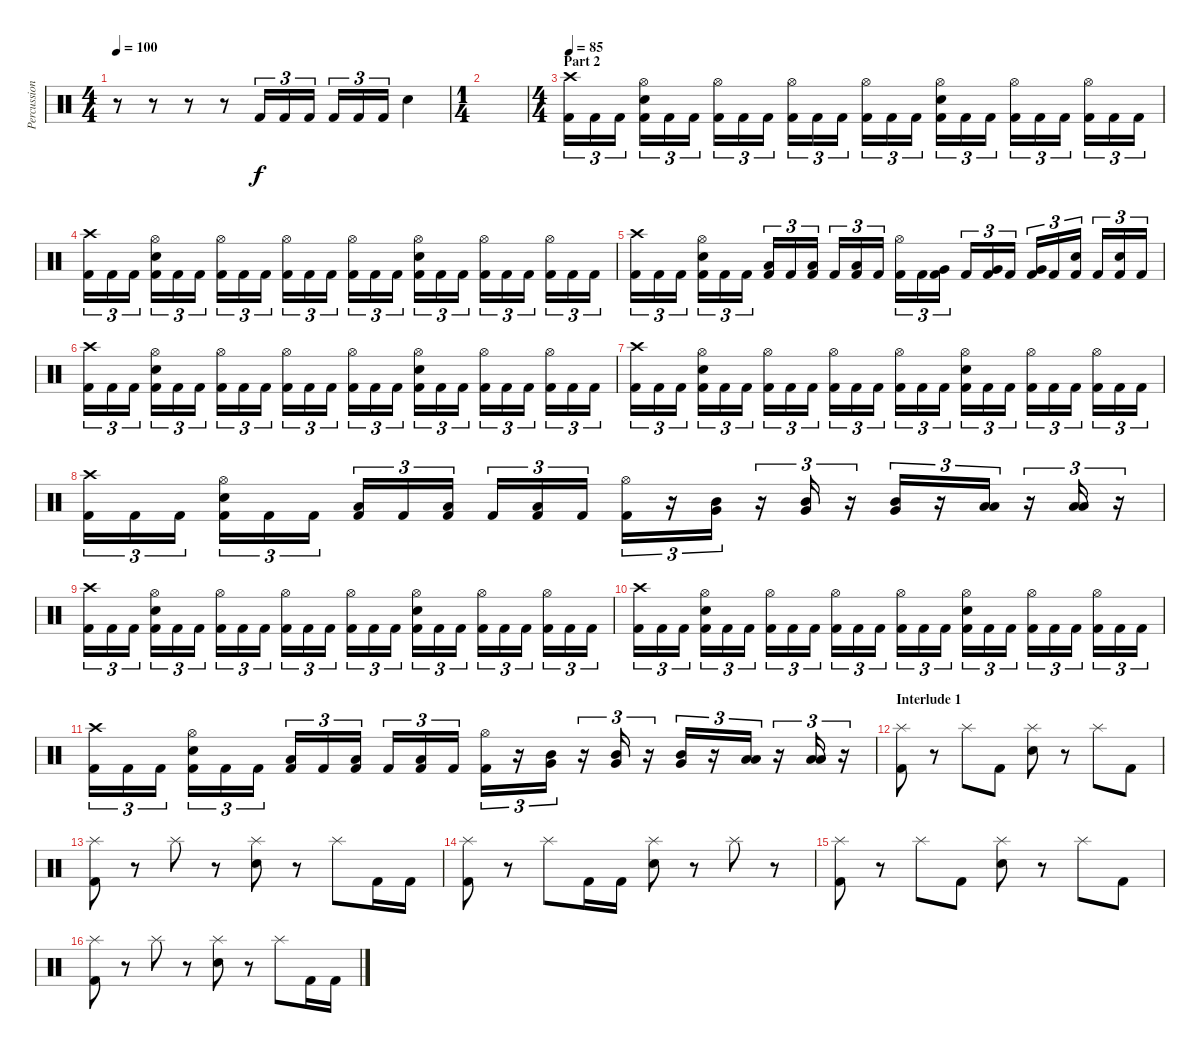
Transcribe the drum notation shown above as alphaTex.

\track ("Percussion" "Percussion") {instrument percussion}
\staff {score}
\articulation defaults
\ts (4 4)
\tempo 100
\clef neutral
\ks c
r.8{dy f} r.8 r.8 r.8 "Kick (hit) 2".16{tu (3 2)} "Kick (hit) 2".16{tu (3 2)} "Kick (hit) 2".16{tu (3 2)} "Kick (hit) 2".16{tu (3 2)} "Kick (hit) 2".16{tu (3 2)} "Kick (hit) 2".16{tu (3 2)} "Electric Snare (hit)".4 |
\ts (1 4)
|
\ts (4 4)
\section ("" "Part 2")
\tempo 85
("Crash high (hit)" "Kick (hit) 2").16{tu (3 2)} "Kick (hit) 2".16{tu (3 2)} "Kick (hit) 2".16{tu (3 2)} ("Hi-Hat (open)" "Electric Snare (hit)" "Kick (hit) 2").16{tu (3 2)} "Kick (hit) 2".16{tu (3 2)} "Kick (hit) 2".16{tu (3 2)} ("Hi-Hat (open)" "Kick (hit) 2").16{tu (3 2)} "Kick (hit) 2".16{tu (3 2)} "Kick (hit) 2".16{tu (3 2)} ("Hi-Hat (open)" "Kick (hit) 2").16{tu (3 2)} "Kick (hit) 2".16{tu (3 2)} "Kick (hit) 2".16{tu (3 2)} ("Hi-Hat (open)" "Kick (hit) 2").16{tu (3 2)} "Kick (hit) 2".16{tu (3 2)} "Kick (hit) 2".16{tu (3 2)} ("Hi-Hat (open)" "Electric Snare (hit)" "Kick (hit) 2").16{tu (3 2)} "Kick (hit) 2".16{tu (3 2)} "Kick (hit) 2".16{tu (3 2)} ("Hi-Hat (open)" "Kick (hit) 2").16{tu (3 2)} "Kick (hit) 2".16{tu (3 2)} "Kick (hit) 2".16{tu (3 2)} ("Hi-Hat (open)" "Kick (hit) 2").16{tu (3 2)} "Kick (hit) 2".16{tu (3 2)} "Kick (hit) 2".16{tu (3 2)} |
("Crash high (hit)" "Kick (hit) 2").16{tu (3 2)} "Kick (hit) 2".16{tu (3 2)} "Kick (hit) 2".16{tu (3 2)} ("Hi-Hat (open)" "Electric Snare (hit)" "Kick (hit) 2").16{tu (3 2)} "Kick (hit) 2".16{tu (3 2)} "Kick (hit) 2".16{tu (3 2)} ("Hi-Hat (open)" "Kick (hit) 2").16{tu (3 2)} "Kick (hit) 2".16{tu (3 2)} "Kick (hit) 2".16{tu (3 2)} ("Hi-Hat (open)" "Kick (hit) 2").16{tu (3 2)} "Kick (hit) 2".16{tu (3 2)} "Kick (hit) 2".16{tu (3 2)} ("Hi-Hat (open)" "Kick (hit) 2").16{tu (3 2)} "Kick (hit) 2".16{tu (3 2)} "Kick (hit) 2".16{tu (3 2)} ("Hi-Hat (open)" "Electric Snare (hit)" "Kick (hit) 2").16{tu (3 2)} "Kick (hit) 2".16{tu (3 2)} "Kick (hit) 2".16{tu (3 2)} ("Hi-Hat (open)" "Kick (hit) 2").16{tu (3 2)} "Kick (hit) 2".16{tu (3 2)} "Kick (hit) 2".16{tu (3 2)} ("Hi-Hat (open)" "Kick (hit) 2").16{tu (3 2)} "Kick (hit) 2".16{tu (3 2)} "Kick (hit) 2".16{tu (3 2)} |
("Crash high (hit)" "Kick (hit) 2").16{tu (3 2)} "Kick (hit) 2".16{tu (3 2)} "Kick (hit) 2".16{tu (3 2)} ("Hi-Hat (open)" "Electric Snare (hit)" "Kick (hit) 2").16{tu (3 2)} "Kick (hit) 2".16{tu (3 2)} "Kick (hit) 2".16{tu (3 2)} ("Low Tom (hit)" "Kick (hit) 2").16{tu (3 2)} "Kick (hit) 2".16{tu (3 2)} ("Low Tom (hit)" "Kick (hit) 2").16{tu (3 2)} "Kick (hit) 2".16{tu (3 2)} ("Low Tom (hit)" "Kick (hit) 2").16{tu (3 2)} "Kick (hit) 2".16{tu (3 2)} ("Hi-Hat (open)" "Kick (hit) 2").16{tu (3 2)} "Kick (hit) 2".16{tu (3 2)} ("Very Low Tom (hit)" "Kick (hit) 2").16{tu (3 2)} "Kick (hit) 2".16{tu (3 2)} ("Very Low Tom (hit)" "Kick (hit) 2").16{tu (3 2)} "Kick (hit) 2".16{tu (3 2)} ("Very Low Tom (hit)" "Kick (hit) 2").16{tu (3 2)} "Kick (hit) 2".16{tu (3 2)} ("Electric Snare (hit)" "Kick (hit) 2").16{tu (3 2)} "Kick (hit) 2".16{tu (3 2)} ("Electric Snare (hit)" "Kick (hit) 2").16{tu (3 2)} "Kick (hit) 2".16{tu (3 2)} |
("Crash high (hit)" "Kick (hit) 2").16{tu (3 2)} "Kick (hit) 2".16{tu (3 2)} "Kick (hit) 2".16{tu (3 2)} ("Hi-Hat (open)" "Electric Snare (hit)" "Kick (hit) 2").16{tu (3 2)} "Kick (hit) 2".16{tu (3 2)} "Kick (hit) 2".16{tu (3 2)} ("Hi-Hat (open)" "Kick (hit) 2").16{tu (3 2)} "Kick (hit) 2".16{tu (3 2)} "Kick (hit) 2".16{tu (3 2)} ("Hi-Hat (open)" "Kick (hit) 2").16{tu (3 2)} "Kick (hit) 2".16{tu (3 2)} "Kick (hit) 2".16{tu (3 2)} ("Hi-Hat (open)" "Kick (hit) 2").16{tu (3 2)} "Kick (hit) 2".16{tu (3 2)} "Kick (hit) 2".16{tu (3 2)} ("Hi-Hat (open)" "Electric Snare (hit)" "Kick (hit) 2").16{tu (3 2)} "Kick (hit) 2".16{tu (3 2)} "Kick (hit) 2".16{tu (3 2)} ("Hi-Hat (open)" "Kick (hit) 2").16{tu (3 2)} "Kick (hit) 2".16{tu (3 2)} "Kick (hit) 2".16{tu (3 2)} ("Hi-Hat (open)" "Kick (hit) 2").16{tu (3 2)} "Kick (hit) 2".16{tu (3 2)} "Kick (hit) 2".16{tu (3 2)} |
("Crash high (hit)" "Kick (hit) 2").16{tu (3 2)} "Kick (hit) 2".16{tu (3 2)} "Kick (hit) 2".16{tu (3 2)} ("Hi-Hat (open)" "Electric Snare (hit)" "Kick (hit) 2").16{tu (3 2)} "Kick (hit) 2".16{tu (3 2)} "Kick (hit) 2".16{tu (3 2)} ("Hi-Hat (open)" "Kick (hit) 2").16{tu (3 2)} "Kick (hit) 2".16{tu (3 2)} "Kick (hit) 2".16{tu (3 2)} ("Hi-Hat (open)" "Kick (hit) 2").16{tu (3 2)} "Kick (hit) 2".16{tu (3 2)} "Kick (hit) 2".16{tu (3 2)} ("Hi-Hat (open)" "Kick (hit) 2").16{tu (3 2)} "Kick (hit) 2".16{tu (3 2)} "Kick (hit) 2".16{tu (3 2)} ("Hi-Hat (open)" "Electric Snare (hit)" "Kick (hit) 2").16{tu (3 2)} "Kick (hit) 2".16{tu (3 2)} "Kick (hit) 2".16{tu (3 2)} ("Hi-Hat (open)" "Kick (hit) 2").16{tu (3 2)} "Kick (hit) 2".16{tu (3 2)} "Kick (hit) 2".16{tu (3 2)} ("Hi-Hat (open)" "Kick (hit) 2").16{tu (3 2)} "Kick (hit) 2".16{tu (3 2)} "Kick (hit) 2".16{tu (3 2)} |
("Crash high (hit)" "Kick (hit) 2").16{tu (3 2)} "Kick (hit) 2".16{tu (3 2)} "Kick (hit) 2".16{tu (3 2)} ("Hi-Hat (open)" "Electric Snare (hit)" "Kick (hit) 2").16{tu (3 2)} "Kick (hit) 2".16{tu (3 2)} "Kick (hit) 2".16{tu (3 2)} ("Low Tom (hit)" "Kick (hit) 2").16{tu (3 2)} "Kick (hit) 2".16{tu (3 2)} ("Low Tom (hit)" "Kick (hit) 2").16{tu (3 2)} "Kick (hit) 2".16{tu (3 2)} ("Low Tom (hit)" "Kick (hit) 2").16{tu (3 2)} "Kick (hit) 2".16{tu (3 2)} ("Hi-Hat (open)" "Kick (hit) 2").16{tu (3 2)} r.16{tu (3 2)} ("Very Low Tom (hit)" "Mid Tom (hit)").16{tu (3 2)} r.16{tu (3 2)} ("Very Low Tom (hit)" "Mid Tom (hit)").16{tu (3 2)} r.16{tu (3 2)} ("Very Low Tom (hit)" "Mid Tom (hit)").16{tu (3 2)} r.16{tu (3 2)} ("Low Floor Tom (hit)" "Low Tom (hit)").16{tu (3 2)} r.16{tu (3 2)} ("Low Floor Tom (hit)" "Low Tom (hit)").16{tu (3 2)} r.16{tu (3 2)} |
("Crash high (hit)" "Kick (hit) 2").16{tu (3 2)} "Kick (hit) 2".16{tu (3 2)} "Kick (hit) 2".16{tu (3 2)} ("Hi-Hat (open)" "Electric Snare (hit)" "Kick (hit) 2").16{tu (3 2)} "Kick (hit) 2".16{tu (3 2)} "Kick (hit) 2".16{tu (3 2)} ("Hi-Hat (open)" "Kick (hit) 2").16{tu (3 2)} "Kick (hit) 2".16{tu (3 2)} "Kick (hit) 2".16{tu (3 2)} ("Hi-Hat (open)" "Kick (hit) 2").16{tu (3 2)} "Kick (hit) 2".16{tu (3 2)} "Kick (hit) 2".16{tu (3 2)} ("Hi-Hat (open)" "Kick (hit) 2").16{tu (3 2)} "Kick (hit) 2".16{tu (3 2)} "Kick (hit) 2".16{tu (3 2)} ("Hi-Hat (open)" "Electric Snare (hit)" "Kick (hit) 2").16{tu (3 2)} "Kick (hit) 2".16{tu (3 2)} "Kick (hit) 2".16{tu (3 2)} ("Hi-Hat (open)" "Kick (hit) 2").16{tu (3 2)} "Kick (hit) 2".16{tu (3 2)} "Kick (hit) 2".16{tu (3 2)} ("Hi-Hat (open)" "Kick (hit) 2").16{tu (3 2)} "Kick (hit) 2".16{tu (3 2)} "Kick (hit) 2".16{tu (3 2)} |
("Crash high (hit)" "Kick (hit) 2").16{tu (3 2)} "Kick (hit) 2".16{tu (3 2)} "Kick (hit) 2".16{tu (3 2)} ("Hi-Hat (open)" "Electric Snare (hit)" "Kick (hit) 2").16{tu (3 2)} "Kick (hit) 2".16{tu (3 2)} "Kick (hit) 2".16{tu (3 2)} ("Hi-Hat (open)" "Kick (hit) 2").16{tu (3 2)} "Kick (hit) 2".16{tu (3 2)} "Kick (hit) 2".16{tu (3 2)} ("Hi-Hat (open)" "Kick (hit) 2").16{tu (3 2)} "Kick (hit) 2".16{tu (3 2)} "Kick (hit) 2".16{tu (3 2)} ("Hi-Hat (open)" "Kick (hit) 2").16{tu (3 2)} "Kick (hit) 2".16{tu (3 2)} "Kick (hit) 2".16{tu (3 2)} ("Hi-Hat (open)" "Electric Snare (hit)" "Kick (hit) 2").16{tu (3 2)} "Kick (hit) 2".16{tu (3 2)} "Kick (hit) 2".16{tu (3 2)} ("Hi-Hat (open)" "Kick (hit) 2").16{tu (3 2)} "Kick (hit) 2".16{tu (3 2)} "Kick (hit) 2".16{tu (3 2)} ("Hi-Hat (open)" "Kick (hit) 2").16{tu (3 2)} "Kick (hit) 2".16{tu (3 2)} "Kick (hit) 2".16{tu (3 2)} |
("Crash high (hit)" "Kick (hit) 2").16{tu (3 2)} "Kick (hit) 2".16{tu (3 2)} "Kick (hit) 2".16{tu (3 2)} ("Hi-Hat (open)" "Electric Snare (hit)" "Kick (hit) 2").16{tu (3 2)} "Kick (hit) 2".16{tu (3 2)} "Kick (hit) 2".16{tu (3 2)} ("Low Tom (hit)" "Kick (hit) 2").16{tu (3 2)} "Kick (hit) 2".16{tu (3 2)} ("Low Tom (hit)" "Kick (hit) 2").16{tu (3 2)} "Kick (hit) 2".16{tu (3 2)} ("Low Tom (hit)" "Kick (hit) 2").16{tu (3 2)} "Kick (hit) 2".16{tu (3 2)} ("Hi-Hat (open)" "Kick (hit) 2").16{tu (3 2)} r.16{tu (3 2)} ("Very Low Tom (hit)" "Mid Tom (hit)").16{tu (3 2)} r.16{tu (3 2)} ("Very Low Tom (hit)" "Mid Tom (hit)").16{tu (3 2)} r.16{tu (3 2)} ("Very Low Tom (hit)" "Mid Tom (hit)").16{tu (3 2)} r.16{tu (3 2)} ("Low Floor Tom (hit)" "Low Tom (hit)").16{tu (3 2)} r.16{tu (3 2)} ("Low Floor Tom (hit)" "Low Tom (hit)").16{tu (3 2)} r.16{tu (3 2)} |
\section ("" "Interlude 1")
("Splash (hit)" "Kick (hit) 2").8 r.8 "Splash (hit)".8 "Kick (hit) 2".8 ("Splash (hit)" "Electric Snare (hit)").8 r.8 "Splash (hit)".8 "Kick (hit) 2".8 |
("Splash (hit)" "Kick (hit) 2").8 r.8 "Splash (hit)".8 r.8 ("Splash (hit)" "Electric Snare (hit)").8 r.8 "Splash (hit)".8 "Kick (hit) 2".16 "Kick (hit) 2".16 |
("Splash (hit)" "Kick (hit) 2").8 r.8 "Splash (hit)".8 "Kick (hit) 2".16 "Kick (hit) 2".16 ("Splash (hit)" "Electric Snare (hit)").8 r.8 "Splash (hit)".8 r.8 |
("Splash (hit)" "Kick (hit) 2").8 r.8 "Splash (hit)".8 "Kick (hit) 2".8 ("Splash (hit)" "Electric Snare (hit)").8 r.8 "Splash (hit)".8 "Kick (hit) 2".8 |
("Splash (hit)" "Kick (hit) 2").8 r.8 "Splash (hit)".8 r.8 ("Splash (hit)" "Electric Snare (hit)").8 r.8 "Splash (hit)".8 "Kick (hit) 2".16 "Kick (hit) 2".16
